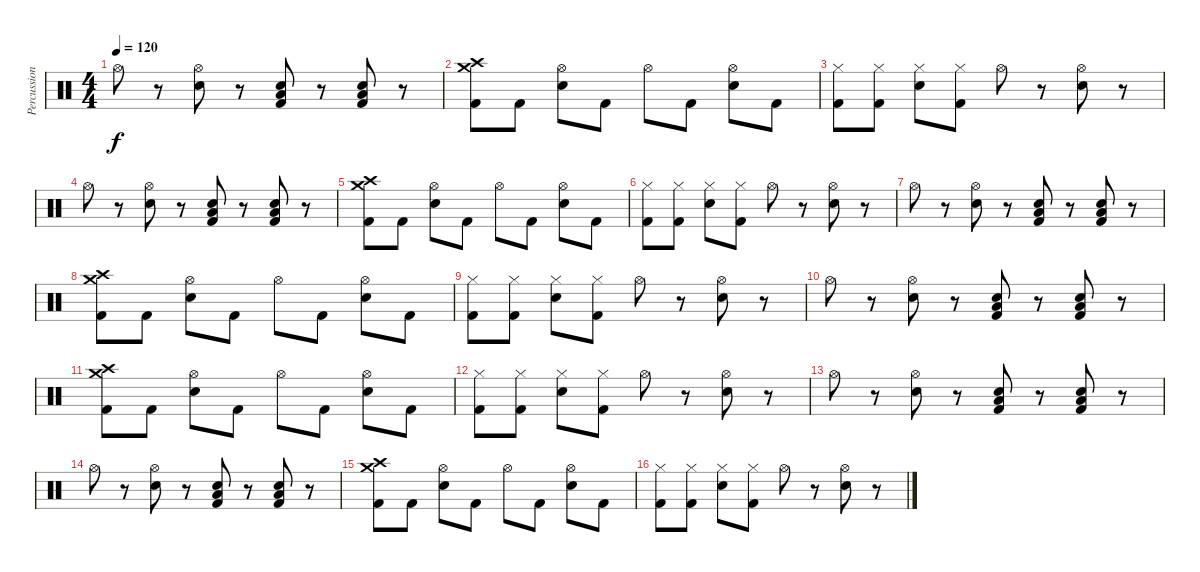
\track ("Percussion" "Percussion") {instrument percussion}
\staff {score}
\articulation defaults
\ts (4 4)
\tempo 120
\clef neutral
\ks c "Hi-Hat (open)".8{dy f}
r.8 ("Hi-Hat (open)" "Electric Snare (hit)").8 r.8 ("Electric Snare (hit)" "Low Floor Tom (hit)" "Kick (hit) 2").8 r.8 ("Electric Snare (hit)" "Low Floor Tom (hit)" "Kick (hit) 2").8 r.8 |
("Crash medium (hit)" "Crash high (hit)" "Kick (hit) 2").8 "Kick (hit) 2".8 ("Hi-Hat (open)" "Electric Snare (hit)").8 "Kick (hit) 2".8 "Hi-Hat (open)".8 "Kick (hit) 2".8 ("Hi-Hat (open)" "Electric Snare (hit)").8 "Kick (hit) 2".8 |
("Hi-Hat (closed)" "Kick (hit) 2").8 ("Hi-Hat (closed)" "Kick (hit) 2").8 ("Hi-Hat (closed)" "Electric Snare (hit)").8 ("Hi-Hat (closed)" "Kick (hit) 2").8 "Hi-Hat (open)".8 r.8 ("Hi-Hat (open)" "Electric Snare (hit)").8 r.8 |
"Hi-Hat (open)".8 r.8 ("Hi-Hat (open)" "Electric Snare (hit)").8 r.8 ("Electric Snare (hit)" "Low Floor Tom (hit)" "Kick (hit) 2").8 r.8 ("Electric Snare (hit)" "Low Floor Tom (hit)" "Kick (hit) 2").8 r.8 |
("Crash medium (hit)" "Crash high (hit)" "Kick (hit) 2").8 "Kick (hit) 2".8 ("Hi-Hat (open)" "Electric Snare (hit)").8 "Kick (hit) 2".8 "Hi-Hat (open)".8 "Kick (hit) 2".8 ("Hi-Hat (open)" "Electric Snare (hit)").8 "Kick (hit) 2".8 |
\ks aminor
("Hi-Hat (closed)" "Kick (hit) 2").8 ("Hi-Hat (closed)" "Kick (hit) 2").8 ("Hi-Hat (closed)" "Electric Snare (hit)").8 ("Hi-Hat (closed)" "Kick (hit) 2").8 "Hi-Hat (open)".8 r.8 ("Hi-Hat (open)" "Electric Snare (hit)").8 r.8 |
"Hi-Hat (open)".8 r.8 ("Hi-Hat (open)" "Electric Snare (hit)").8 r.8 ("Electric Snare (hit)" "Low Floor Tom (hit)" "Kick (hit) 2").8 r.8 ("Electric Snare (hit)" "Low Floor Tom (hit)" "Kick (hit) 2").8 r.8 |
\ks c
("Crash medium (hit)" "Crash high (hit)" "Kick (hit) 2").8 "Kick (hit) 2".8 ("Hi-Hat (open)" "Electric Snare (hit)").8 "Kick (hit) 2".8 "Hi-Hat (open)".8 "Kick (hit) 2".8 ("Hi-Hat (open)" "Electric Snare (hit)").8 "Kick (hit) 2".8 |
\ks aminor
("Hi-Hat (closed)" "Kick (hit) 2").8 ("Hi-Hat (closed)" "Kick (hit) 2").8 ("Hi-Hat (closed)" "Electric Snare (hit)").8 ("Hi-Hat (closed)" "Kick (hit) 2").8 "Hi-Hat (open)".8 r.8 ("Hi-Hat (open)" "Electric Snare (hit)").8 r.8 |
"Hi-Hat (open)".8 r.8 ("Hi-Hat (open)" "Electric Snare (hit)").8 r.8 ("Electric Snare (hit)" "Low Floor Tom (hit)" "Kick (hit) 2").8 r.8 ("Electric Snare (hit)" "Low Floor Tom (hit)" "Kick (hit) 2").8 r.8 |
\ks c
("Crash medium (hit)" "Crash high (hit)" "Kick (hit) 2").8 "Kick (hit) 2".8 ("Hi-Hat (open)" "Electric Snare (hit)").8 "Kick (hit) 2".8 "Hi-Hat (open)".8 "Kick (hit) 2".8 ("Hi-Hat (open)" "Electric Snare (hit)").8 "Kick (hit) 2".8 |
\ks aminor
("Hi-Hat (closed)" "Kick (hit) 2").8 ("Hi-Hat (closed)" "Kick (hit) 2").8 ("Hi-Hat (closed)" "Electric Snare (hit)").8 ("Hi-Hat (closed)" "Kick (hit) 2").8 "Hi-Hat (open)".8 r.8 ("Hi-Hat (open)" "Electric Snare (hit)").8 r.8 |
"Hi-Hat (open)".8 r.8 ("Hi-Hat (open)" "Electric Snare (hit)").8 r.8 ("Electric Snare (hit)" "Low Floor Tom (hit)" "Kick (hit) 2").8 r.8 ("Electric Snare (hit)" "Low Floor Tom (hit)" "Kick (hit) 2").8 r.8 |
"Hi-Hat (open)".8 r.8 ("Hi-Hat (open)" "Electric Snare (hit)").8 r.8 ("Electric Snare (hit)" "Low Floor Tom (hit)" "Kick (hit) 2").8 r.8 ("Electric Snare (hit)" "Low Floor Tom (hit)" "Kick (hit) 2").8 r.8 |
("Crash medium (hit)" "Crash high (hit)" "Kick (hit) 2").8 "Kick (hit) 2".8 ("Hi-Hat (open)" "Electric Snare (hit)").8 "Kick (hit) 2".8 "Hi-Hat (open)".8 "Kick (hit) 2".8 ("Hi-Hat (open)" "Electric Snare (hit)").8 "Kick (hit) 2".8 |
("Hi-Hat (closed)" "Kick (hit) 2").8 ("Hi-Hat (closed)" "Kick (hit) 2").8 ("Hi-Hat (closed)" "Electric Snare (hit)").8 ("Hi-Hat (closed)" "Kick (hit) 2").8 "Hi-Hat (open)".8 r.8 ("Hi-Hat (open)" "Electric Snare (hit)").8 r.8
